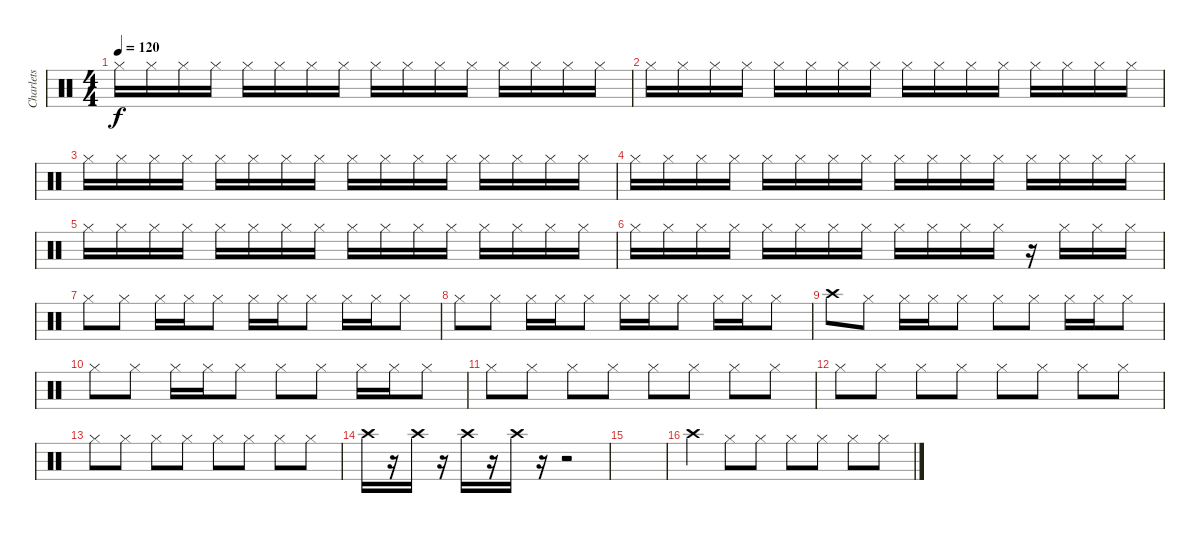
\track ("Charlets" "Charlets") {instrument percussion}
\staff {score}
\articulation defaults
\ts (4 4)
\tempo 120
\clef neutral
\ks c "Hi-Hat (closed)".16{dy f} "Hi-Hat (closed)".16 "Hi-Hat (closed)".16 "Hi-Hat (closed)".16 "Hi-Hat (closed)".16 "Hi-Hat (closed)".16 "Hi-Hat (closed)".16 "Hi-Hat (closed)".16 "Hi-Hat (closed)".16 "Hi-Hat (closed)".16 "Hi-Hat (closed)".16 "Hi-Hat (closed)".16 "Hi-Hat (closed)".16 "Hi-Hat (closed)".16 "Hi-Hat (closed)".16 "Hi-Hat (closed)".16
|
"Hi-Hat (closed)".16 "Hi-Hat (closed)".16 "Hi-Hat (closed)".16 "Hi-Hat (closed)".16 "Hi-Hat (closed)".16 "Hi-Hat (closed)".16 "Hi-Hat (closed)".16 "Hi-Hat (closed)".16 "Hi-Hat (closed)".16 "Hi-Hat (closed)".16 "Hi-Hat (closed)".16 "Hi-Hat (closed)".16 "Hi-Hat (closed)".16 "Hi-Hat (closed)".16 "Hi-Hat (closed)".16 "Hi-Hat (closed)".16 |
"Hi-Hat (closed)".16 "Hi-Hat (closed)".16 "Hi-Hat (closed)".16 "Hi-Hat (closed)".16 "Hi-Hat (closed)".16 "Hi-Hat (closed)".16 "Hi-Hat (closed)".16 "Hi-Hat (closed)".16 "Hi-Hat (closed)".16 "Hi-Hat (closed)".16 "Hi-Hat (closed)".16 "Hi-Hat (closed)".16 "Hi-Hat (closed)".16 "Hi-Hat (closed)".16 "Hi-Hat (closed)".16 "Hi-Hat (closed)".16 |
"Hi-Hat (closed)".16 "Hi-Hat (closed)".16 "Hi-Hat (closed)".16 "Hi-Hat (closed)".16 "Hi-Hat (closed)".16 "Hi-Hat (closed)".16 "Hi-Hat (closed)".16 "Hi-Hat (closed)".16 "Hi-Hat (closed)".16 "Hi-Hat (closed)".16 "Hi-Hat (closed)".16 "Hi-Hat (closed)".16 "Hi-Hat (closed)".16 "Hi-Hat (closed)".16 "Hi-Hat (closed)".16 "Hi-Hat (closed)".16 |
"Hi-Hat (closed)".16 "Hi-Hat (closed)".16 "Hi-Hat (closed)".16 "Hi-Hat (closed)".16 "Hi-Hat (closed)".16 "Hi-Hat (closed)".16 "Hi-Hat (closed)".16 "Hi-Hat (closed)".16 "Hi-Hat (closed)".16 "Hi-Hat (closed)".16 "Hi-Hat (closed)".16 "Hi-Hat (closed)".16 "Hi-Hat (closed)".16 "Hi-Hat (closed)".16 "Hi-Hat (closed)".16 "Hi-Hat (closed)".16 |
"Hi-Hat (closed)".16 "Hi-Hat (closed)".16 "Hi-Hat (closed)".16 "Hi-Hat (closed)".16 "Hi-Hat (closed)".16 "Hi-Hat (closed)".16 "Hi-Hat (closed)".16 "Hi-Hat (closed)".16 "Hi-Hat (closed)".16 "Hi-Hat (closed)".16 "Hi-Hat (closed)".16 "Hi-Hat (closed)".16 r.16 "Hi-Hat (closed)".16 "Hi-Hat (closed)".16 "Hi-Hat (closed)".16 |
"Hi-Hat (closed)".8 "Hi-Hat (closed)".8 "Hi-Hat (closed)".16 "Hi-Hat (closed)".16 "Hi-Hat (closed)".8 "Hi-Hat (closed)".16 "Hi-Hat (closed)".16 "Hi-Hat (closed)".8 "Hi-Hat (closed)".16 "Hi-Hat (closed)".16 "Hi-Hat (closed)".8 |
"Hi-Hat (closed)".8 "Hi-Hat (closed)".8 "Hi-Hat (closed)".16 "Hi-Hat (closed)".16 "Hi-Hat (closed)".8 "Hi-Hat (closed)".16 "Hi-Hat (closed)".16 "Hi-Hat (closed)".8 "Hi-Hat (closed)".16 "Hi-Hat (closed)".16 "Hi-Hat (closed)".8 |
"Crash high (hit)".8 "Hi-Hat (closed)".8 "Hi-Hat (closed)".16 "Hi-Hat (closed)".16 "Hi-Hat (closed)".8 "Hi-Hat (closed)".8 "Hi-Hat (closed)".8 "Hi-Hat (closed)".16 "Hi-Hat (closed)".16 "Hi-Hat (closed)".8 |
"Hi-Hat (closed)".8 "Hi-Hat (closed)".8 "Hi-Hat (closed)".16 "Hi-Hat (closed)".16 "Hi-Hat (closed)".8 "Hi-Hat (closed)".8 "Hi-Hat (closed)".8 "Hi-Hat (closed)".16 "Hi-Hat (closed)".16 "Hi-Hat (closed)".8 |
"Hi-Hat (closed)".8 "Hi-Hat (closed)".8 "Hi-Hat (closed)".8 "Hi-Hat (closed)".8 "Hi-Hat (closed)".8 "Hi-Hat (closed)".8 "Hi-Hat (closed)".8 "Hi-Hat (closed)".8 |
"Hi-Hat (closed)".8 "Hi-Hat (closed)".8 "Hi-Hat (closed)".8 "Hi-Hat (closed)".8 "Hi-Hat (closed)".8 "Hi-Hat (closed)".8 "Hi-Hat (closed)".8 "Hi-Hat (closed)".8 |
"Hi-Hat (closed)".8 "Hi-Hat (closed)".8 "Hi-Hat (closed)".8 "Hi-Hat (closed)".8 "Hi-Hat (closed)".8 "Hi-Hat (closed)".8 "Hi-Hat (closed)".8 "Hi-Hat (closed)".8 |
"Crash high (hit)".16 r.16 "Crash high (hit)".16 r.16 "Crash high (hit)".16 r.16 "Crash high (hit)".16 r.16 r.2 |
|
"Crash high (hit)".4 "Hi-Hat (closed)".8 "Hi-Hat (closed)".8 "Hi-Hat (closed)".8 "Hi-Hat (closed)".8 "Hi-Hat (closed)".8 "Hi-Hat (closed)".8
